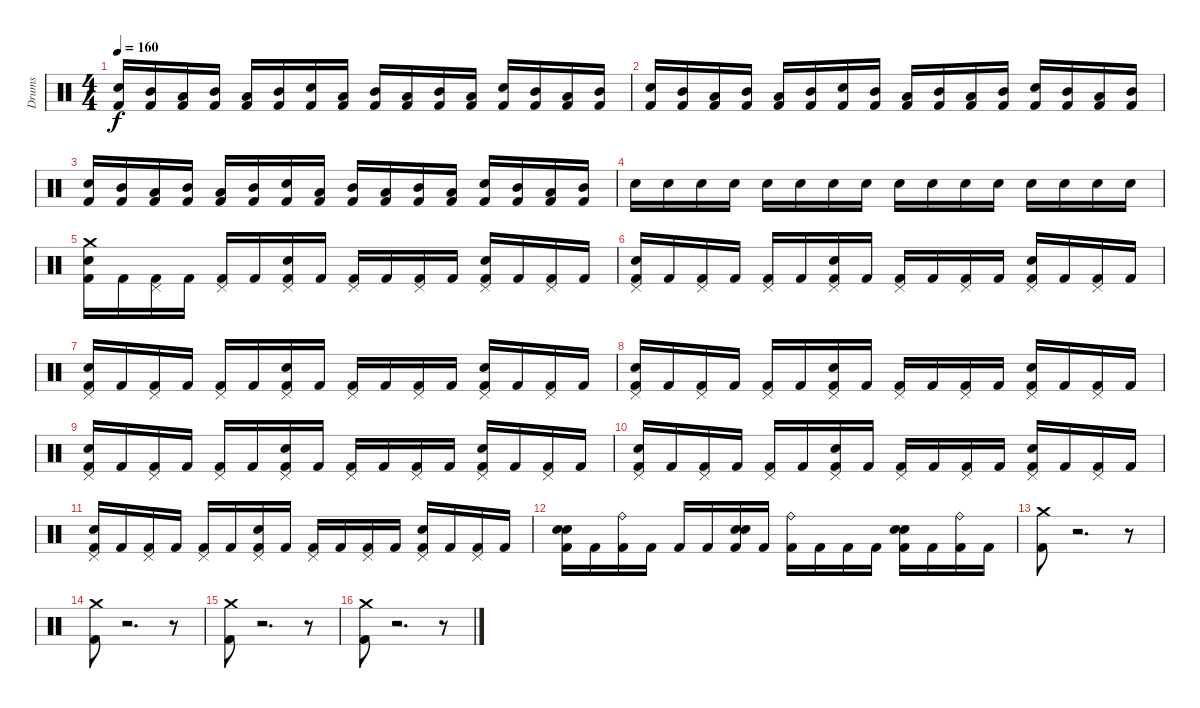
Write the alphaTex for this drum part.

\track ("Drums" "Drums") {instrument percussion}
\staff {score}
\articulation defaults
\ts (4 4)
\tempo 160
\clef neutral
\ks c
("Electric Snare (hit)" "Kick (hit) 2").16{dy f} ("Mid Tom (hit)" "Kick (hit) 2").16 ("Low Tom (hit)" "Kick (hit) 2").16 ("Mid Tom (hit)" "Kick (hit) 2").16 ("Low Tom (hit)" "Kick (hit) 2").16 ("Mid Tom (hit)" "Kick (hit) 2").16 ("Electric Snare (hit)" "Kick (hit) 2").16 ("Low Tom (hit)" "Kick (hit) 2").16 ("Mid Tom (hit)" "Kick (hit) 2").16 ("Low Tom (hit)" "Kick (hit) 2").16 ("Mid Tom (hit)" "Kick (hit) 2").16 ("Low Tom (hit)" "Kick (hit) 2").16 ("Electric Snare (hit)" "Kick (hit) 2").16 ("Mid Tom (hit)" "Kick (hit) 2").16 ("Low Tom (hit)" "Kick (hit) 2").16 ("Mid Tom (hit)" "Kick (hit) 2").16 |
("Kick (hit) 2" "Electric Snare (hit)").16 ("Mid Tom (hit)" "Kick (hit) 2").16 ("Low Tom (hit)" "Kick (hit) 2").16 ("Mid Tom (hit)" "Kick (hit) 2").16 ("Low Tom (hit)" "Kick (hit) 2").16 ("Mid Tom (hit)" "Kick (hit) 2").16 ("Kick (hit) 2" "Electric Snare (hit)").16 ("Mid Tom (hit)" "Kick (hit) 2").16 ("Low Tom (hit)" "Kick (hit) 2").16 ("Mid Tom (hit)" "Kick (hit) 2").16 ("Low Tom (hit)" "Kick (hit) 2").16 ("Mid Tom (hit)" "Kick (hit) 2").16 ("Kick (hit) 2" "Electric Snare (hit)").16 ("Mid Tom (hit)" "Kick (hit) 2").16 ("Low Tom (hit)" "Kick (hit) 2").16 ("Mid Tom (hit)" "Kick (hit) 2").16 |
("Electric Snare (hit)" "Kick (hit) 2").16 ("Mid Tom (hit)" "Kick (hit) 2").16 ("Low Tom (hit)" "Kick (hit) 2").16 ("Mid Tom (hit)" "Kick (hit) 2").16 ("Low Tom (hit)" "Kick (hit) 2").16 ("Mid Tom (hit)" "Kick (hit) 2").16 ("Electric Snare (hit)" "Kick (hit) 2").16 ("Low Tom (hit)" "Kick (hit) 2").16 ("Mid Tom (hit)" "Kick (hit) 2").16 ("Low Tom (hit)" "Kick (hit) 2").16 ("Mid Tom (hit)" "Kick (hit) 2").16 ("Low Tom (hit)" "Kick (hit) 2").16 ("Electric Snare (hit)" "Kick (hit) 2").16 ("Mid Tom (hit)" "Kick (hit) 2").16 ("Low Tom (hit)" "Kick (hit) 2").16 ("Mid Tom (hit)" "Kick (hit) 2").16 |
"Electric Snare (hit)".16 "Electric Snare (hit)".16 "Electric Snare (hit)".16 "Electric Snare (hit)".16 "Electric Snare (hit)".16 "Electric Snare (hit)".16 "Electric Snare (hit)".16 "Electric Snare (hit)".16 "Electric Snare (hit)".16 "Electric Snare (hit)".16 "Electric Snare (hit)".16 "Electric Snare (hit)".16 "Electric Snare (hit)".16 "Electric Snare (hit)".16 "Electric Snare (hit)".16 "Electric Snare (hit)".16 |
("Crash medium (hit)" "Kick (hit) 2" "Electric Snare (hit)").16 "Kick (hit) 2".16 ("Pedal Hi-Hat (hit)" "Kick (hit) 2").16 "Kick (hit) 2".16 ("Pedal Hi-Hat (hit)" "Kick (hit) 2").16 "Kick (hit) 2".16 ("Pedal Hi-Hat (hit)" "Kick (hit) 2" "Electric Snare (hit)").16 "Kick (hit) 2".16 ("Pedal Hi-Hat (hit)" "Kick (hit) 2").16 "Kick (hit) 2".16 ("Pedal Hi-Hat (hit)" "Kick (hit) 2").16 "Kick (hit) 2".16 ("Pedal Hi-Hat (hit)" "Kick (hit) 2" "Electric Snare (hit)").16 "Kick (hit) 2".16 ("Pedal Hi-Hat (hit)" "Kick (hit) 2").16 "Kick (hit) 2".16 |
("Pedal Hi-Hat (hit)" "Electric Snare (hit)" "Kick (hit) 2").16 "Kick (hit) 2".16 ("Pedal Hi-Hat (hit)" "Kick (hit) 2").16 "Kick (hit) 2".16 ("Pedal Hi-Hat (hit)" "Kick (hit) 2").16 "Kick (hit) 2".16 ("Pedal Hi-Hat (hit)" "Electric Snare (hit)" "Kick (hit) 2").16 "Kick (hit) 2".16 ("Pedal Hi-Hat (hit)" "Kick (hit) 2").16 "Kick (hit) 2".16 ("Pedal Hi-Hat (hit)" "Kick (hit) 2").16 "Kick (hit) 2".16 ("Pedal Hi-Hat (hit)" "Electric Snare (hit)" "Kick (hit) 2").16 "Kick (hit) 2".16 ("Pedal Hi-Hat (hit)" "Kick (hit) 2").16 "Kick (hit) 2".16 |
("Pedal Hi-Hat (hit)" "Kick (hit) 2" "Electric Snare (hit)").16 "Kick (hit) 2".16 ("Pedal Hi-Hat (hit)" "Kick (hit) 2").16 "Kick (hit) 2".16 ("Pedal Hi-Hat (hit)" "Kick (hit) 2").16 "Kick (hit) 2".16 ("Pedal Hi-Hat (hit)" "Kick (hit) 2" "Electric Snare (hit)").16 "Kick (hit) 2".16 ("Pedal Hi-Hat (hit)" "Kick (hit) 2").16 "Kick (hit) 2".16 ("Pedal Hi-Hat (hit)" "Kick (hit) 2").16 "Kick (hit) 2".16 ("Pedal Hi-Hat (hit)" "Kick (hit) 2" "Electric Snare (hit)").16 "Kick (hit) 2".16 ("Pedal Hi-Hat (hit)" "Kick (hit) 2").16 "Kick (hit) 2".16 |
("Pedal Hi-Hat (hit)" "Electric Snare (hit)" "Kick (hit) 2").16 "Kick (hit) 2".16 ("Pedal Hi-Hat (hit)" "Kick (hit) 2").16 "Kick (hit) 2".16 ("Pedal Hi-Hat (hit)" "Kick (hit) 2").16 "Kick (hit) 2".16 ("Pedal Hi-Hat (hit)" "Electric Snare (hit)" "Kick (hit) 2").16 "Kick (hit) 2".16 ("Pedal Hi-Hat (hit)" "Kick (hit) 2").16 "Kick (hit) 2".16 ("Pedal Hi-Hat (hit)" "Kick (hit) 2").16 "Kick (hit) 2".16 ("Pedal Hi-Hat (hit)" "Electric Snare (hit)" "Kick (hit) 2").16 "Kick (hit) 2".16 ("Pedal Hi-Hat (hit)" "Kick (hit) 2").16 "Kick (hit) 2".16 |
("Pedal Hi-Hat (hit)" "Kick (hit) 2" "Electric Snare (hit)").16 "Kick (hit) 2".16 ("Pedal Hi-Hat (hit)" "Kick (hit) 2").16 "Kick (hit) 2".16 ("Pedal Hi-Hat (hit)" "Kick (hit) 2").16 "Kick (hit) 2".16 ("Pedal Hi-Hat (hit)" "Kick (hit) 2" "Electric Snare (hit)").16 "Kick (hit) 2".16 ("Pedal Hi-Hat (hit)" "Kick (hit) 2").16 "Kick (hit) 2".16 ("Pedal Hi-Hat (hit)" "Kick (hit) 2").16 "Kick (hit) 2".16 ("Pedal Hi-Hat (hit)" "Kick (hit) 2" "Electric Snare (hit)").16 "Kick (hit) 2".16 ("Pedal Hi-Hat (hit)" "Kick (hit) 2").16 "Kick (hit) 2".16 |
("Pedal Hi-Hat (hit)" "Electric Snare (hit)" "Kick (hit) 2").16 "Kick (hit) 2".16 ("Pedal Hi-Hat (hit)" "Kick (hit) 2").16 "Kick (hit) 2".16 ("Pedal Hi-Hat (hit)" "Kick (hit) 2").16 "Kick (hit) 2".16 ("Pedal Hi-Hat (hit)" "Electric Snare (hit)" "Kick (hit) 2").16 "Kick (hit) 2".16 ("Pedal Hi-Hat (hit)" "Kick (hit) 2").16 "Kick (hit) 2".16 ("Pedal Hi-Hat (hit)" "Kick (hit) 2").16 "Kick (hit) 2".16 ("Pedal Hi-Hat (hit)" "Electric Snare (hit)" "Kick (hit) 2").16 "Kick (hit) 2".16 ("Pedal Hi-Hat (hit)" "Kick (hit) 2").16 "Kick (hit) 2".16 |
("Pedal Hi-Hat (hit)" "Kick (hit) 2" "Electric Snare (hit)").16 "Kick (hit) 2".16 ("Pedal Hi-Hat (hit)" "Kick (hit) 2").16 "Kick (hit) 2".16 ("Pedal Hi-Hat (hit)" "Kick (hit) 2").16 "Kick (hit) 2".16 ("Pedal Hi-Hat (hit)" "Kick (hit) 2" "Electric Snare (hit)").16 "Kick (hit) 2".16 ("Pedal Hi-Hat (hit)" "Kick (hit) 2").16 "Kick (hit) 2".16 ("Pedal Hi-Hat (hit)" "Kick (hit) 2").16 "Kick (hit) 2".16 ("Pedal Hi-Hat (hit)" "Kick (hit) 2" "Electric Snare (hit)").16 "Kick (hit) 2".16 ("Pedal Hi-Hat (hit)" "Kick (hit) 2").16 "Kick (hit) 2".16 |
("Electric Snare (hit)" "Electric Snare (hit)" "Kick (hit) 2").16 "Kick (hit) 2".16 ("Ride (bell)" "Kick (hit) 2").16 "Kick (hit) 2".16 "Kick (hit) 2".16 "Kick (hit) 2".16 ("Electric Snare (hit)" "Electric Snare (hit)" "Kick (hit) 2").16 "Kick (hit) 2".16 ("Ride (bell)" "Kick (hit) 2").16 "Kick (hit) 2".16 "Kick (hit) 2".16 "Kick (hit) 2".16 ("Electric Snare (hit)" "Electric Snare (hit)" "Kick (hit) 2").16 "Kick (hit) 2".16 ("Ride (bell)" "Kick (hit) 2").16 "Kick (hit) 2".16 |
("Crash medium (hit)" "Kick (hit) 2").8 r.2{d} r.8 |
("Crash medium (hit)" "Kick (hit) 2").8 r.2{d} r.8 |
("Crash medium (hit)" "Kick (hit) 2").8 r.2{d} r.8 |
("Crash medium (hit)" "Kick (hit) 2").8 r.2{d} r.8
